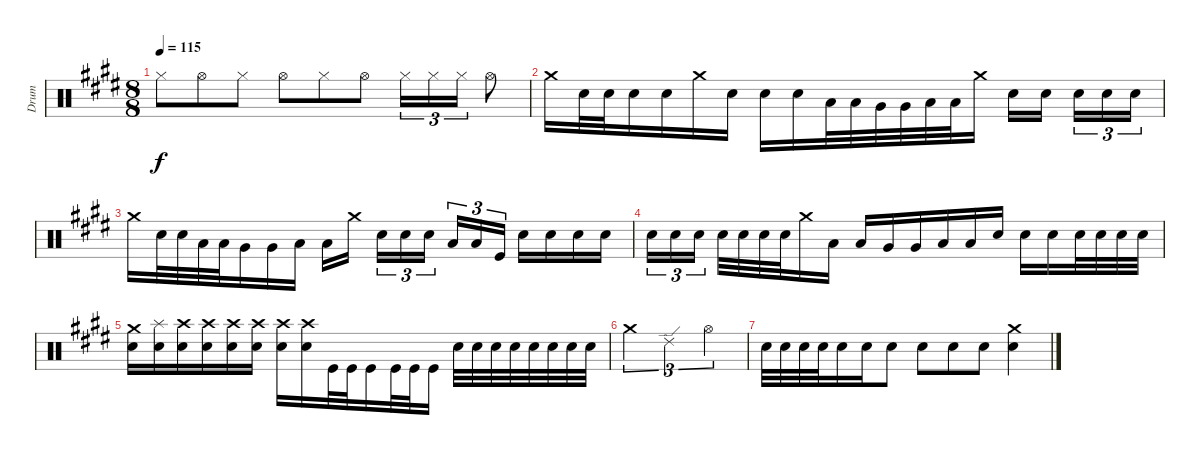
\track ("Drum" "Drum") {instrument percussion}
\staff {score}
\articulation defaults
\ts (8 8)
\tempo 115
\clef neutral
\ks e "Hi-Hat (closed)".8{dy f} "Hi-Hat (open)".8 "Hi-Hat (closed)".8 "Hi-Hat (open)".8 "Hi-Hat (closed)".8 "Hi-Hat (open)".8 "Hi-Hat (closed)".16{tu (3 2)} "Hi-Hat (closed)".16{tu (3 2)} "Hi-Hat (closed)".16{tu (3 2)} "Hi-Hat (open)".8
|
"Crash medium (hit)".16 "Snare (hit) 2".32 "Snare (hit) 2".32 "Snare (hit) 2".16 "Snare (hit) 2".16 "Crash medium (hit)".16 "Snare (hit) 2".16 "Snare (hit) 2".16 "Snare (hit) 2".16 "Low Tom (hit)".32 "Low Tom (hit)".32 "Very Low Tom (hit)".32 "Very Low Tom (hit)".32 "Low Floor Tom (hit)".32 "Low Floor Tom (hit)".32 "Crash medium (hit)".16 "Snare (hit) 2".16 "Snare (hit) 2".16 "Snare (hit) 2".16{tu (3 2)} "Snare (hit) 2".16{tu (3 2)} "Snare (hit) 2".16{tu (3 2)} |
"Crash medium (hit)".16 "Snare (hit) 2".32 "Snare (hit) 2".32 "Low Tom (hit)".32 "Low Tom (hit)".32 "Very Low Tom (hit)".16 "Very Low Tom (hit)".16 "Low Floor Tom (hit)".16 "Low Floor Tom (hit)".16 "Crash medium (hit)".16 "Snare (hit) 2".16{tu (3 2)} "Snare (hit) 2".16{tu (3 2)} "Snare (hit) 2".16{tu (3 2)} "Low Tom (hit)".16{tu (3 2)} "Low Tom (hit)".16{tu (3 2)} "Kick (hit)".16{tu (3 2)} "Snare (hit) 2".16 "Snare (hit) 2".16 "Snare (hit) 2".16 "Snare (hit) 2".16 |
"Snare (hit) 2".16{tu (3 2)} "Snare (hit) 2".16{tu (3 2)} "Snare (hit) 2".16{tu (3 2)} "Snare (hit) 2".32 "Snare (hit) 2".32 "Snare (hit) 2".32 "Snare (hit) 2".32 "Crash medium (hit)".16 "Low Tom (hit)".16 "Low Tom (hit)".16 "Very Low Tom (hit)".16 "Very Low Tom (hit)".16 "Low Floor Tom (hit)".16 "Low Floor Tom (hit)".16 "Snare (hit) 2".16 "Snare (hit) 2".16 "Snare (hit) 2".16 "Snare (hit) 2".32 "Snare (hit) 2".32 "Snare (hit) 2".32 "Snare (hit) 2".32 |
("Crash medium (hit)" "Snare (hit) 2").16 ("Splash (hit)" "Snare (hit) 2").16 ("Crash high (hit)" "Snare (hit) 2").16 ("Crash high (hit)" "Snare (hit) 2").16 ("Crash high (hit)" "Snare (hit) 2").16 ("Crash high (hit)" "Snare (hit) 2").16 ("Crash high (hit)" "Snare (hit) 2").16 ("Crash high (hit)" "Snare (hit) 2").16 "Kick (hit)".32 "Kick (hit)".32 "Kick (hit)".16 "Kick (hit)".32 "Kick (hit)".32 "Kick (hit)".16 "Snare (hit) 2".32 "Snare (hit) 2".32 "Snare (hit) 2".32 "Snare (hit) 2".32 "Snare (hit) 2".32 "Snare (hit) 2".32 "Snare (hit) 2".32 "Snare (hit) 2".32 |
"Crash medium (hit)".2{tu (3 2)} "Ride (edge) 2".2{tu (3 2)} "Hi-Hat (open)".2{tu (3 2)} |
"Snare (hit) 2".32 "Snare (hit) 2".32 "Snare (hit) 2".32 "Snare (hit) 2".32 "Snare (hit) 2".16 "Snare (hit) 2".16 "Snare (hit) 2".8 "Snare (hit) 2".8 "Snare (hit) 2".8 "Snare (hit) 2".8 ("Crash medium (hit)" "Snare (hit) 2").4
